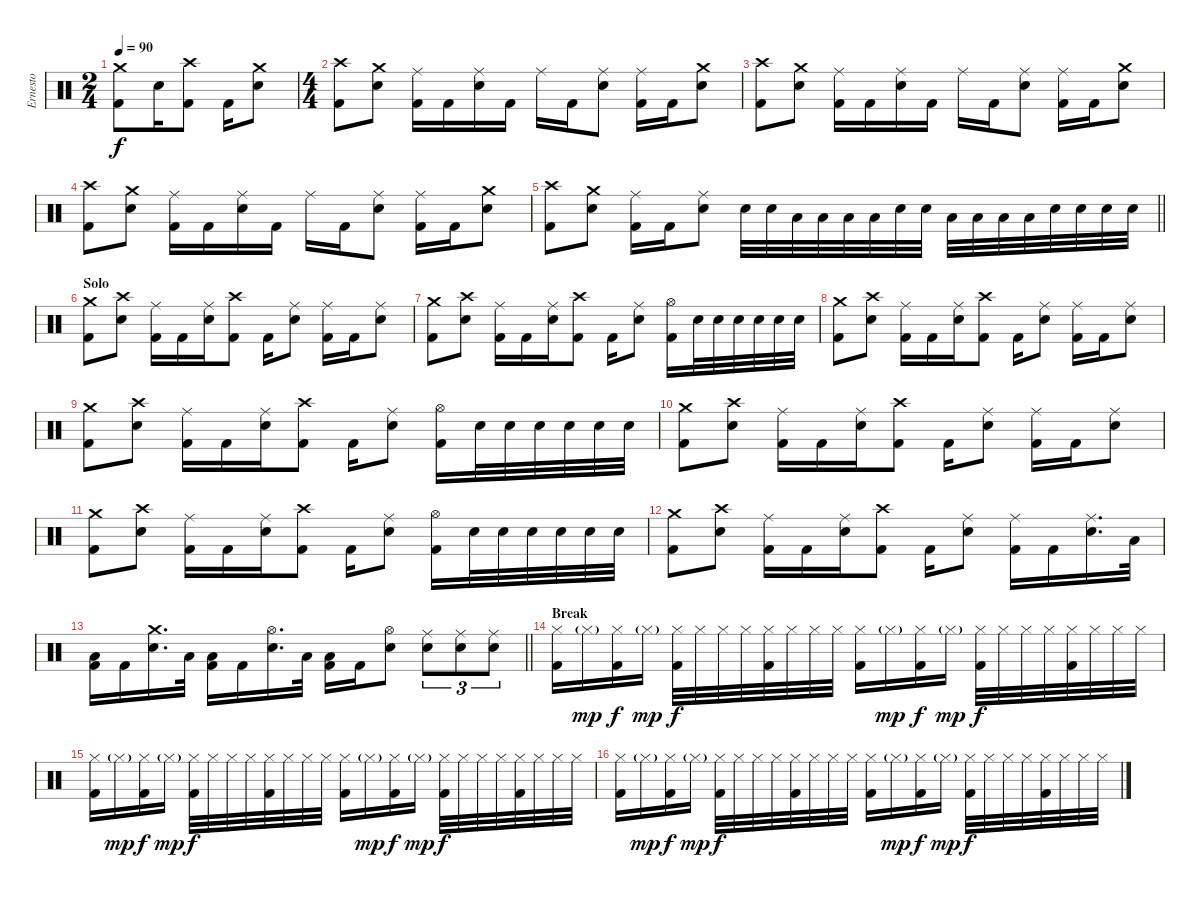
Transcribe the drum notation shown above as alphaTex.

\track ("Ernesto" "Ernesto") {instrument percussion}
\staff
\articulation defaults
\ts (2 4)
\tempo 90
\clef neutral
\ks c
("Crash medium (hit)" "Kick (hit) 2").8{dy f} "Electric Snare (hit)".16 ("Crash high (hit)" "Kick (hit) 2").8 "Kick (hit) 2".16 ("Crash medium (hit)" "Electric Snare (hit)").8 |
\ts (4 4)
("Crash high (hit)" "Kick (hit) 2").8 ("Crash medium (hit)" "Electric Snare (hit)").8 ("Ride (middle)" "Kick (hit) 2").16 "Kick (hit) 2".16 ("Ride (middle)" "Electric Snare (hit)").16 "Kick (hit) 2".16 "Ride (middle)".16 "Kick (hit) 2".16 ("Ride (middle)" "Electric Snare (hit)").8 ("Ride (middle)" "Kick (hit) 2").16 "Kick (hit) 2".16 ("Crash medium (hit)" "Electric Snare (hit)").8 |
("Crash high (hit)" "Kick (hit) 2").8 ("Crash medium (hit)" "Electric Snare (hit)").8 ("Ride (middle)" "Kick (hit) 2").16 "Kick (hit) 2".16 ("Ride (middle)" "Electric Snare (hit)").16 "Kick (hit) 2".16 "Ride (middle)".16 "Kick (hit) 2".16 ("Ride (middle)" "Electric Snare (hit)").8 ("Ride (middle)" "Kick (hit) 2").16 "Kick (hit) 2".16 ("Crash medium (hit)" "Electric Snare (hit)").8 |
("Crash high (hit)" "Kick (hit) 2").8 ("Crash medium (hit)" "Electric Snare (hit)").8 ("Ride (middle)" "Kick (hit) 2").16 "Kick (hit) 2".16 ("Ride (middle)" "Electric Snare (hit)").16 "Kick (hit) 2".16 "Ride (middle)".16 "Kick (hit) 2".16 ("Ride (middle)" "Electric Snare (hit)").8 ("Ride (middle)" "Kick (hit) 2").16 "Kick (hit) 2".16 ("Crash medium (hit)" "Electric Snare (hit)").8 |
\barLineRight lightlight
("Crash high (hit)" "Kick (hit) 2").8 ("Crash medium (hit)" "Electric Snare (hit)").8 ("Ride (middle)" "Kick (hit) 2").16 "Kick (hit) 2".16 ("Ride (middle)" "Electric Snare (hit)").8 "Electric Snare (hit)".32 "Electric Snare (hit)".32 "Low Tom (hit)".32 "Low Tom (hit)".32 "Low Floor Tom (hit)".32 "Low Floor Tom (hit)".32 "Electric Snare (hit)".32 "Electric Snare (hit)".32 "Low Tom (hit)".32 "Low Tom (hit)".32 "Low Floor Tom (hit)".32 "Low Floor Tom (hit)".32 "Electric Snare (hit)".32 "Electric Snare (hit)".32 "Electric Snare (hit)".32 "Electric Snare (hit)".32 |
\section ("" "Solo")
("Crash medium (hit)" "Kick (hit) 2").8 ("Crash high (hit)" "Electric Snare (hit)").8 ("Ride (middle)" "Kick (hit) 2").16 "Kick (hit) 2".16 ("Ride (middle)" "Electric Snare (hit)").16 ("Crash high (hit)" "Kick (hit) 2").8 "Kick (hit) 2".16 ("Ride (middle)" "Electric Snare (hit)").8 ("Ride (middle)" "Kick (hit) 2").16 "Kick (hit) 2".16 ("Ride (middle)" "Electric Snare (hit)").8 |
("Crash medium (hit)" "Kick (hit) 2").8 ("Crash high (hit)" "Electric Snare (hit)").8 ("Ride (middle)" "Kick (hit) 2").16 "Kick (hit) 2".16 ("Ride (middle)" "Electric Snare (hit)").16 ("Crash high (hit)" "Kick (hit) 2").8 "Kick (hit) 2".16 ("Ride (middle)" "Electric Snare (hit)").8 ("Hi-Hat (open)" "Kick (hit) 2").16 "Electric Snare (hit)".32 "Electric Snare (hit)".32 "Electric Snare (hit)".32 "Electric Snare (hit)".32 "Electric Snare (hit)".32 "Electric Snare (hit)".32 |
("Crash medium (hit)" "Kick (hit) 2").8 ("Crash high (hit)" "Electric Snare (hit)").8 ("Ride (middle)" "Kick (hit) 2").16 "Kick (hit) 2".16 ("Ride (middle)" "Electric Snare (hit)").16 ("Crash high (hit)" "Kick (hit) 2").8 "Kick (hit) 2".16 ("Ride (middle)" "Electric Snare (hit)").8 ("Ride (middle)" "Kick (hit) 2").16 "Kick (hit) 2".16 ("Ride (middle)" "Electric Snare (hit)").8 |
("Crash medium (hit)" "Kick (hit) 2").8 ("Crash high (hit)" "Electric Snare (hit)").8 ("Ride (middle)" "Kick (hit) 2").16 "Kick (hit) 2".16 ("Ride (middle)" "Electric Snare (hit)").16 ("Crash high (hit)" "Kick (hit) 2").8 "Kick (hit) 2".16 ("Ride (middle)" "Electric Snare (hit)").8 ("Hi-Hat (open)" "Kick (hit) 2").16 "Electric Snare (hit)".32 "Electric Snare (hit)".32 "Electric Snare (hit)".32 "Electric Snare (hit)".32 "Electric Snare (hit)".32 "Electric Snare (hit)".32 |
("Crash medium (hit)" "Kick (hit) 2").8 ("Crash high (hit)" "Electric Snare (hit)").8 ("Ride (middle)" "Kick (hit) 2").16 "Kick (hit) 2".16 ("Ride (middle)" "Electric Snare (hit)").16 ("Crash high (hit)" "Kick (hit) 2").8 "Kick (hit) 2".16 ("Ride (middle)" "Electric Snare (hit)").8 ("Ride (middle)" "Kick (hit) 2").16 "Kick (hit) 2".16 ("Ride (middle)" "Electric Snare (hit)").8 |
("Crash medium (hit)" "Kick (hit) 2").8 ("Crash high (hit)" "Electric Snare (hit)").8 ("Ride (middle)" "Kick (hit) 2").16 "Kick (hit) 2".16 ("Ride (middle)" "Electric Snare (hit)").16 ("Crash high (hit)" "Kick (hit) 2").8 "Kick (hit) 2".16 ("Ride (middle)" "Electric Snare (hit)").8 ("Hi-Hat (open)" "Kick (hit) 2").16 "Electric Snare (hit)".32 "Electric Snare (hit)".32 "Electric Snare (hit)".32 "Electric Snare (hit)".32 "Electric Snare (hit)".32 "Electric Snare (hit)".32 |
("Crash medium (hit)" "Kick (hit) 2").8 ("Crash high (hit)" "Electric Snare (hit)").8 ("Ride (middle)" "Kick (hit) 2").16 "Kick (hit) 2".16 ("Ride (middle)" "Electric Snare (hit)").16 ("Crash high (hit)" "Kick (hit) 2").8 "Kick (hit) 2".16 ("Ride (middle)" "Electric Snare (hit)").8 ("Ride (middle)" "Kick (hit) 2").16 "Kick (hit) 2".16 ("Ride (middle)" "Electric Snare (hit)").16{d} "Low Tom (hit)".32 |
\barLineRight lightlight
("Low Floor Tom (hit)" "Kick (hit) 2").16 "Kick (hit) 2".16 ("Crash medium (hit)" "Electric Snare (hit)").16{d} "Low Tom (hit)".32 ("Low Floor Tom (hit)" "Kick (hit) 2").16 "Kick (hit) 2".16 ("Hi-Hat (open)" "Electric Snare (hit)").16{d} "Low Tom (hit)".32 ("Low Floor Tom (hit)" "Kick (hit) 2").16 "Kick (hit) 2".16 ("Hi-Hat (open)" "Electric Snare (hit)").8 ("Ride (middle)" "Electric Snare (hit)").8{tu (3 2)} ("Ride (middle)" "Electric Snare (hit)").8{tu (3 2)} ("Ride (middle)" "Electric Snare (hit)").8{tu (3 2)} |
\section ("" "Break")
("Hi-Hat (closed)" "Kick (hit) 2").16 "Hi-Hat (closed)"{g}.16{dy mp} ("Hi-Hat (closed)" "Kick (hit) 2").16{dy f} "Hi-Hat (closed)"{g}.16{dy mp} ("Hi-Hat (closed)" "Kick (hit) 2").32{dy f} "Hi-Hat (closed)".32 "Hi-Hat (closed)".32 "Hi-Hat (closed)".32 ("Hi-Hat (closed)" "Kick (hit) 2").32 "Hi-Hat (closed)".32 "Hi-Hat (closed)".32 "Hi-Hat (closed)".32 ("Hi-Hat (closed)" "Kick (hit) 2").16 "Hi-Hat (closed)"{g}.16{dy mp} ("Hi-Hat (closed)" "Kick (hit) 2").16{dy f} "Hi-Hat (closed)"{g}.16{dy mp} ("Hi-Hat (closed)" "Kick (hit) 2").32{dy f} "Hi-Hat (closed)".32 "Hi-Hat (closed)".32 "Hi-Hat (closed)".32 ("Hi-Hat (closed)" "Kick (hit) 2").32 "Hi-Hat (closed)".32 "Hi-Hat (closed)".32 "Hi-Hat (closed)".32 |
("Hi-Hat (closed)" "Kick (hit) 2").16 "Hi-Hat (closed)"{g}.16{dy mp} ("Hi-Hat (closed)" "Kick (hit) 2").16{dy f} "Hi-Hat (closed)"{g}.16{dy mp} ("Hi-Hat (closed)" "Kick (hit) 2").32{dy f} "Hi-Hat (closed)".32 "Hi-Hat (closed)".32 "Hi-Hat (closed)".32 ("Hi-Hat (closed)" "Kick (hit) 2").32 "Hi-Hat (closed)".32 "Hi-Hat (closed)".32 "Hi-Hat (closed)".32 ("Hi-Hat (closed)" "Kick (hit) 2").16 "Hi-Hat (closed)"{g}.16{dy mp} ("Hi-Hat (closed)" "Kick (hit) 2").16{dy f} "Hi-Hat (closed)"{g}.16{dy mp} ("Hi-Hat (closed)" "Kick (hit) 2").32{dy f} "Hi-Hat (closed)".32 "Hi-Hat (closed)".32 "Hi-Hat (closed)".32 ("Hi-Hat (closed)" "Kick (hit) 2").32 "Hi-Hat (closed)".32 "Hi-Hat (closed)".32 "Hi-Hat (closed)".32 |
("Hi-Hat (closed)" "Kick (hit) 2").16 "Hi-Hat (closed)"{g}.16{dy mp} ("Hi-Hat (closed)" "Kick (hit) 2").16{dy f} "Hi-Hat (closed)"{g}.16{dy mp} ("Hi-Hat (closed)" "Kick (hit) 2").32{dy f} "Hi-Hat (closed)".32 "Hi-Hat (closed)".32 "Hi-Hat (closed)".32 ("Hi-Hat (closed)" "Kick (hit) 2").32 "Hi-Hat (closed)".32 "Hi-Hat (closed)".32 "Hi-Hat (closed)".32 ("Hi-Hat (closed)" "Kick (hit) 2").16 "Hi-Hat (closed)"{g}.16{dy mp} ("Hi-Hat (closed)" "Kick (hit) 2").16{dy f} "Hi-Hat (closed)"{g}.16{dy mp} ("Hi-Hat (closed)" "Kick (hit) 2").32{dy f} "Hi-Hat (closed)".32 "Hi-Hat (closed)".32 "Hi-Hat (closed)".32 ("Hi-Hat (closed)" "Kick (hit) 2").32 "Hi-Hat (closed)".32 "Hi-Hat (closed)".32 "Hi-Hat (closed)".32
